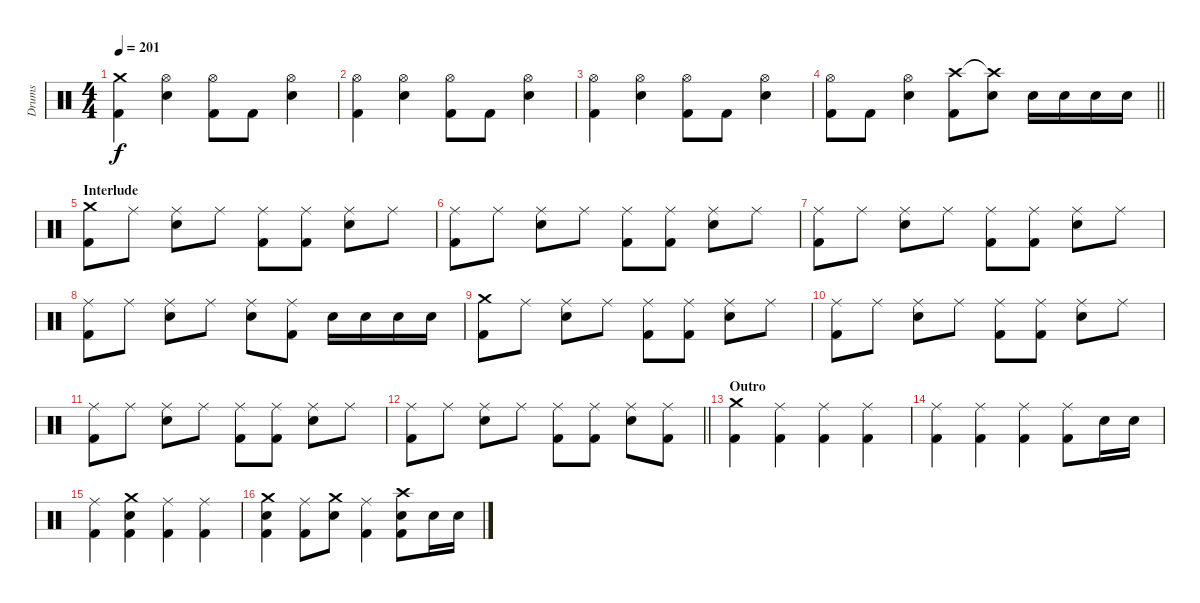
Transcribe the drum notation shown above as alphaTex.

\track ("Drums" "Drums") {instrument percussion}
\staff {score}
\articulation defaults
\ts (4 4)
\tempo 201
\clef neutral
\ks c
("Crash medium (hit)" "Kick (hit) 2").4{dy f} ("Hi-Hat (open)" "Electric Snare (hit)").4 ("Hi-Hat (open)" "Kick (hit) 2").8 "Kick (hit) 2".8 ("Hi-Hat (open)" "Electric Snare (hit)").4 |
("Hi-Hat (open)" "Kick (hit) 2").4 ("Hi-Hat (open)" "Electric Snare (hit)").4 ("Hi-Hat (open)" "Kick (hit) 2").8 "Kick (hit) 2".8 ("Hi-Hat (open)" "Electric Snare (hit)").4 |
("Hi-Hat (open)" "Kick (hit) 2").4 ("Hi-Hat (open)" "Electric Snare (hit)").4 ("Hi-Hat (open)" "Kick (hit) 2").8 "Kick (hit) 2".8 ("Hi-Hat (open)" "Electric Snare (hit)").4 |
\barLineRight lightlight
("Hi-Hat (open)" "Kick (hit) 2").8 "Kick (hit) 2".8 ("Hi-Hat (open)" "Electric Snare (hit)").4 ("Crash high (hit)" "Kick (hit) 2").8 ("Crash high (hit)"{t} "Electric Snare (hit)").8 "Electric Snare (hit)".16 "Electric Snare (hit)".16 "Electric Snare (hit)".16 "Electric Snare (hit)".16 |
\section ("" "Interlude")
("Crash medium (hit)" "Kick (hit) 2").8 "Ride (middle)".8 ("Ride (middle)" "Electric Snare (hit)").8 "Ride (middle)".8 ("Ride (middle)" "Kick (hit) 2").8 ("Ride (middle)" "Kick (hit) 2").8 ("Ride (middle)" "Electric Snare (hit)").8 "Ride (middle)".8 |
("Ride (middle)" "Kick (hit) 2").8 "Ride (middle)".8 ("Ride (middle)" "Electric Snare (hit)").8 "Ride (middle)".8 ("Ride (middle)" "Kick (hit) 2").8 ("Ride (middle)" "Kick (hit) 2").8 ("Ride (middle)" "Electric Snare (hit)").8 "Ride (middle)".8 |
("Ride (middle)" "Kick (hit) 2").8 "Ride (middle)".8 ("Ride (middle)" "Electric Snare (hit)").8 "Ride (middle)".8 ("Ride (middle)" "Kick (hit) 2").8 ("Ride (middle)" "Kick (hit) 2").8 ("Ride (middle)" "Electric Snare (hit)").8 "Ride (middle)".8 |
("Ride (middle)" "Kick (hit) 2").8 "Ride (middle)".8 ("Ride (middle)" "Electric Snare (hit)").8 "Ride (middle)".8 ("Ride (middle)" "Electric Snare (hit)").8 ("Ride (middle)" "Kick (hit) 2").8 "Electric Snare (hit)".16 "Electric Snare (hit)".16 "Electric Snare (hit)".16 "Electric Snare (hit)".16 |
("Crash medium (hit)" "Kick (hit) 2").8 "Ride (middle)".8 ("Ride (middle)" "Electric Snare (hit)").8 "Ride (middle)".8 ("Ride (middle)" "Kick (hit) 2").8 ("Ride (middle)" "Kick (hit) 2").8 ("Ride (middle)" "Electric Snare (hit)").8 "Ride (middle)".8 |
("Ride (middle)" "Kick (hit) 2").8 "Ride (middle)".8 ("Ride (middle)" "Electric Snare (hit)").8 "Ride (middle)".8 ("Ride (middle)" "Kick (hit) 2").8 ("Ride (middle)" "Kick (hit) 2").8 ("Ride (middle)" "Electric Snare (hit)").8 "Ride (middle)".8 |
("Ride (middle)" "Kick (hit) 2").8 "Ride (middle)".8 ("Ride (middle)" "Electric Snare (hit)").8 "Ride (middle)".8 ("Ride (middle)" "Kick (hit) 2").8 ("Ride (middle)" "Kick (hit) 2").8 ("Ride (middle)" "Electric Snare (hit)").8 "Ride (middle)".8 |
\barLineRight lightlight
("Ride (middle)" "Kick (hit) 2").8 "Ride (middle)".8 ("Ride (middle)" "Electric Snare (hit)").8 "Ride (middle)".8 ("Ride (middle)" "Kick (hit) 2").8 ("Ride (middle)" "Kick (hit) 2").8 ("Ride (middle)" "Electric Snare (hit)").8 ("Ride (middle)" "Kick (hit) 2").8 |
\section ("" "Outro")
("Crash medium (hit)" "Kick (hit) 2").4 ("Ride (middle)" "Kick (hit) 2").4 ("Ride (middle)" "Kick (hit) 2").4 ("Ride (middle)" "Kick (hit) 2").4 |
("Ride (middle)" "Kick (hit) 2").4 ("Ride (middle)" "Kick (hit) 2").4 ("Ride (middle)" "Kick (hit) 2").4 ("Ride (middle)" "Kick (hit) 2").8 "Electric Snare (hit)".16 "Electric Snare (hit)".16 |
("Ride (middle)" "Kick (hit) 2").4 ("Crash medium (hit)" "Electric Snare (hit)" "Kick (hit) 2").4 ("Ride (middle)" "Kick (hit) 2").4 ("Ride (middle)" "Kick (hit) 2").4 |
("Crash medium (hit)" "Electric Snare (hit)" "Kick (hit) 2").4 ("Ride (middle)" "Kick (hit) 2").8 ("Crash medium (hit)" "Electric Snare (hit)").8 ("Ride (middle)" "Kick (hit) 2").4 ("Crash high (hit)" "Electric Snare (hit)" "Kick (hit) 2").8 "Electric Snare (hit)".16 "Electric Snare (hit)".16
